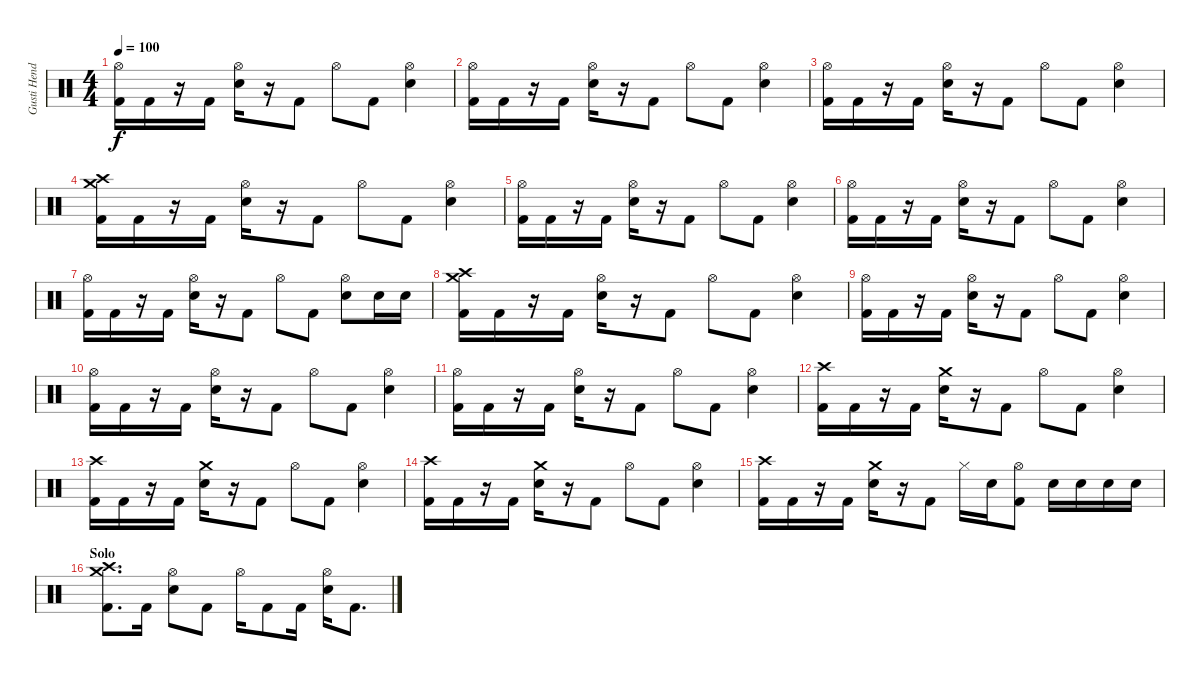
\track ("Gusti Hendy" "Gusti Hend") {instrument percussion}
\staff {score}
\articulation defaults
\ts (4 4)
\tempo 100
\clef neutral
\ks c
("Hi-Hat (open)" "Kick (hit) 2").16{dy f} "Kick (hit) 2".16 r.16 "Kick (hit) 2".16 ("Hi-Hat (open)" "Electric Snare (hit)").16 r.16 "Kick (hit) 2".8 "Hi-Hat (open)".8 "Kick (hit) 2".8 ("Hi-Hat (open)" "Electric Snare (hit)").4 |
("Hi-Hat (open)" "Kick (hit) 2").16 "Kick (hit) 2".16 r.16 "Kick (hit) 2".16 ("Hi-Hat (open)" "Electric Snare (hit)").16 r.16 "Kick (hit) 2".8 "Hi-Hat (open)".8 "Kick (hit) 2".8 ("Hi-Hat (open)" "Electric Snare (hit)").4 |
("Hi-Hat (open)" "Kick (hit) 2").16 "Kick (hit) 2".16 r.16 "Kick (hit) 2".16 ("Hi-Hat (open)" "Electric Snare (hit)").16 r.16 "Kick (hit) 2".8 "Hi-Hat (open)".8 "Kick (hit) 2".8 ("Hi-Hat (open)" "Electric Snare (hit)").4 |
("Crash high (hit)" "Crash medium (hit)" "Kick (hit) 2").16 "Kick (hit) 2".16 r.16 "Kick (hit) 2".16 ("Hi-Hat (open)" "Electric Snare (hit)").16 r.16 "Kick (hit) 2".8 "Hi-Hat (open)".8 "Kick (hit) 2".8 ("Hi-Hat (open)" "Electric Snare (hit)").4 |
("Hi-Hat (open)" "Kick (hit) 2").16 "Kick (hit) 2".16 r.16 "Kick (hit) 2".16 ("Hi-Hat (open)" "Electric Snare (hit)").16 r.16 "Kick (hit) 2".8 "Hi-Hat (open)".8 "Kick (hit) 2".8 ("Hi-Hat (open)" "Electric Snare (hit)").4 |
("Hi-Hat (open)" "Kick (hit) 2").16 "Kick (hit) 2".16 r.16 "Kick (hit) 2".16 ("Hi-Hat (open)" "Electric Snare (hit)").16 r.16 "Kick (hit) 2".8 "Hi-Hat (open)".8 "Kick (hit) 2".8 ("Hi-Hat (open)" "Electric Snare (hit)").4 |
("Hi-Hat (open)" "Kick (hit) 2").16 "Kick (hit) 2".16 r.16 "Kick (hit) 2".16 ("Hi-Hat (open)" "Electric Snare (hit)").16 r.16 "Kick (hit) 2".8 "Hi-Hat (open)".8 "Kick (hit) 2".8 ("Hi-Hat (open)" "Electric Snare (hit)").8 "Electric Snare (hit)".16 "Electric Snare (hit)".16 |
("Crash high (hit)" "Crash medium (hit)" "Kick (hit) 2").16 "Kick (hit) 2".16 r.16 "Kick (hit) 2".16 ("Hi-Hat (open)" "Electric Snare (hit)").16 r.16 "Kick (hit) 2".8 "Hi-Hat (open)".8 "Kick (hit) 2".8 ("Hi-Hat (open)" "Electric Snare (hit)").4 |
("Hi-Hat (open)" "Kick (hit) 2").16 "Kick (hit) 2".16 r.16 "Kick (hit) 2".16 ("Hi-Hat (open)" "Electric Snare (hit)").16 r.16 "Kick (hit) 2".8 "Hi-Hat (open)".8 "Kick (hit) 2".8 ("Hi-Hat (open)" "Electric Snare (hit)").4 |
("Hi-Hat (open)" "Kick (hit) 2").16 "Kick (hit) 2".16 r.16 "Kick (hit) 2".16 ("Hi-Hat (open)" "Electric Snare (hit)").16 r.16 "Kick (hit) 2".8 "Hi-Hat (open)".8 "Kick (hit) 2".8 ("Hi-Hat (open)" "Electric Snare (hit)").4 |
("Hi-Hat (open)" "Kick (hit) 2").16 "Kick (hit) 2".16 r.16 "Kick (hit) 2".16 ("Hi-Hat (open)" "Electric Snare (hit)").16 r.16 "Kick (hit) 2".8 "Hi-Hat (open)".8 "Kick (hit) 2".8 ("Hi-Hat (open)" "Electric Snare (hit)").4 |
("Crash high (hit)" "Kick (hit) 2").16 "Kick (hit) 2".16 r.16 "Kick (hit) 2".16 ("Crash medium (hit)" "Electric Snare (hit)").16 r.16 "Kick (hit) 2".8 "Hi-Hat (open)".8 "Kick (hit) 2".8 ("Hi-Hat (open)" "Electric Snare (hit)").4 |
("Crash high (hit)" "Kick (hit) 2").16 "Kick (hit) 2".16 r.16 "Kick (hit) 2".16 ("Crash medium (hit)" "Electric Snare (hit)").16 r.16 "Kick (hit) 2".8 "Hi-Hat (open)".8 "Kick (hit) 2".8 ("Hi-Hat (open)" "Electric Snare (hit)").4 |
("Crash high (hit)" "Kick (hit) 2").16 "Kick (hit) 2".16 r.16 "Kick (hit) 2".16 ("Crash medium (hit)" "Electric Snare (hit)").16 r.16 "Kick (hit) 2".8 "Hi-Hat (open)".8 "Kick (hit) 2".8 ("Hi-Hat (open)" "Electric Snare (hit)").4 |
("Crash high (hit)" "Kick (hit) 2").16 "Kick (hit) 2".16 r.16 "Kick (hit) 2".16 ("Crash medium (hit)" "Electric Snare (hit)").16 r.16 "Kick (hit) 2".8 "Hi-Hat (closed)".16 "Electric Snare (hit)".16 ("Hi-Hat (open)" "Kick (hit) 2").8 "Electric Snare (hit)".16 "Electric Snare (hit)".16 "Electric Snare (hit)".16 "Electric Snare (hit)".16 |
\section ("" "Solo")
("Crash high (hit)" "Crash medium (hit)" "Kick (hit) 2").8{d} "Kick (hit) 2".16 ("Hi-Hat (open)" "Electric Snare (hit)").8 "Kick (hit) 2".8 "Hi-Hat (open)".16 "Kick (hit) 2".8 "Kick (hit) 2".16 ("Hi-Hat (open)" "Electric Snare (hit)").16 "Kick (hit) 2".8{d}
